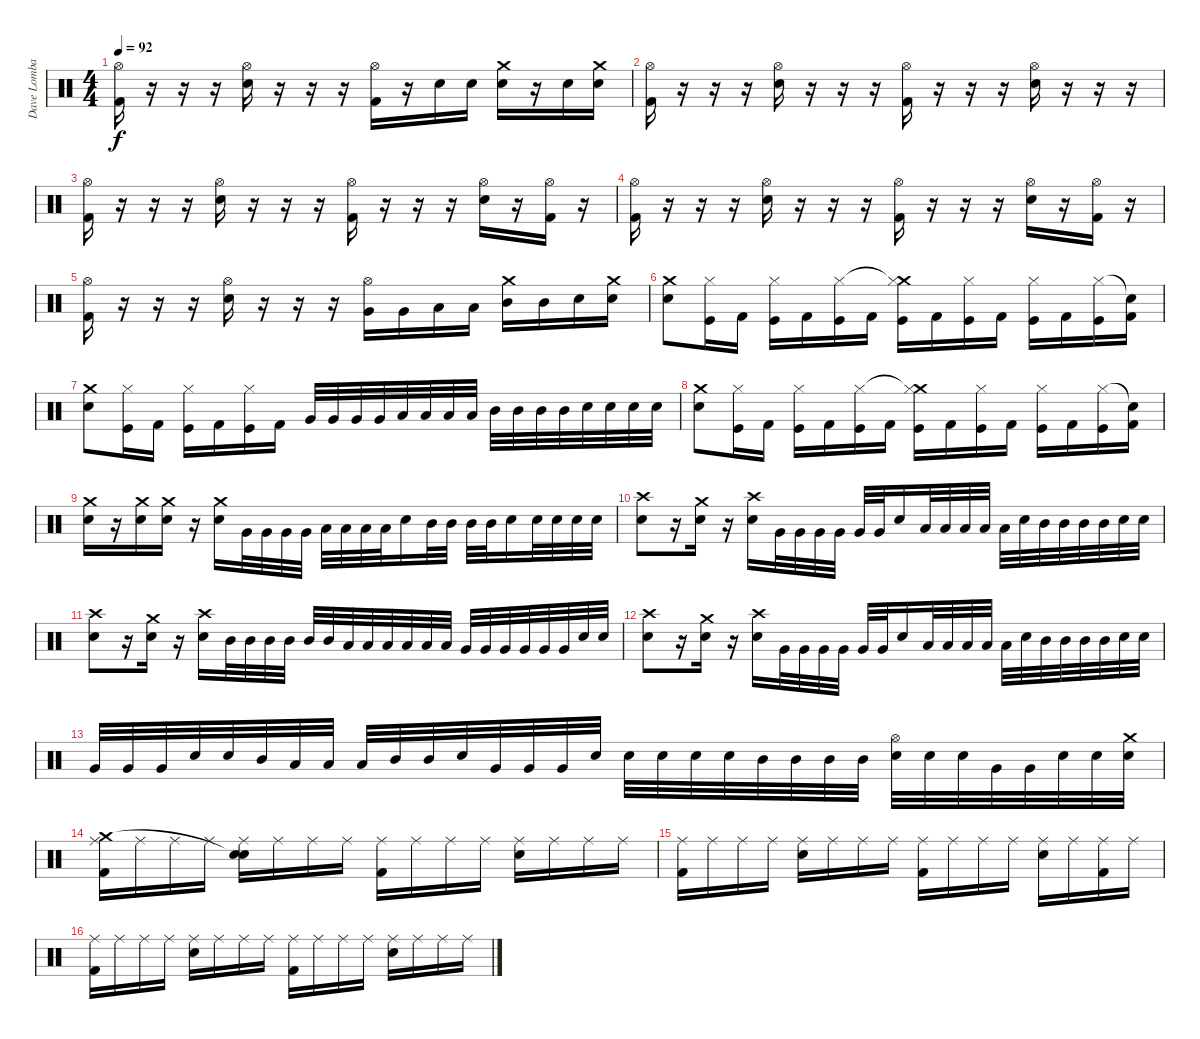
\track ("Dave Lombardo" "Dave Lomba") {instrument percussion}
\staff {score}
\articulation defaults
\ts (4 4)
\tempo 92
\clef neutral
\ks c
("Kick (hit) 2" "Hi-Hat (open)").16{dy f} r.16 r.16 r.16 ("Electric Snare (hit)" "Hi-Hat (open)").16 r.16 r.16 r.16 ("Kick (hit) 2" "Hi-Hat (open)").16 r.16 "Snare (hit) 2".16 "Snare (hit) 2".16 ("Electric Snare (hit)" "Crash medium (hit)").16 r.16 "Electric Snare (hit)".16 ("Electric Snare (hit)" "Crash medium (hit)").16 |
("Kick (hit) 2" "Hi-Hat (open)").16 r.16 r.16 r.16 ("Electric Snare (hit)" "Hi-Hat (open)").16 r.16 r.16 r.16 ("Kick (hit) 2" "Hi-Hat (open)").16 r.16 r.16 r.16 ("Electric Snare (hit)" "Hi-Hat (open)").16 r.16 r.16 r.16 |
("Kick (hit) 2" "Hi-Hat (open)").16 r.16 r.16 r.16 ("Electric Snare (hit)" "Hi-Hat (open)").16 r.16 r.16 r.16 ("Kick (hit) 2" "Hi-Hat (open)").16 r.16 r.16 r.16 ("Electric Snare (hit)" "Hi-Hat (open)").16 r.16 ("Kick (hit) 2" "Hi-Hat (open)").16 r.16 |
("Kick (hit) 2" "Hi-Hat (open)").16 r.16 r.16 r.16 ("Electric Snare (hit)" "Hi-Hat (open)").16 r.16 r.16 r.16 ("Kick (hit) 2" "Hi-Hat (open)").16 r.16 r.16 r.16 ("Electric Snare (hit)" "Hi-Hat (open)").16 r.16 ("Kick (hit) 2" "Hi-Hat (open)").16 r.16 |
("Kick (hit) 2" "Hi-Hat (open)").16 r.16 r.16 r.16 ("Electric Snare (hit)" "Hi-Hat (open)").16 r.16 r.16 r.16 ("Very Low Tom (hit)" "Hi-Hat (open)").16 "Very Low Tom (hit)".16 "Low Tom (hit)".16 "Low Tom (hit)".16 ("Mid Tom (hit)" "Crash medium (hit)").16 "Mid Tom (hit)".16 "Electric Snare (hit)".16 ("Electric Snare (hit)" "Crash medium (hit)").16 |
("Electric Snare (hit)" "Crash medium (hit)").8 ("Kick (hit)" "Hi-Hat (closed)").16 "Kick (hit) 2".16 ("Kick (hit)" "Hi-Hat (closed)").16 "Kick (hit) 2".16 ("Kick (hit)" "Hi-Hat (closed)").16 "Kick (hit) 2".16 ("Kick (hit)" "Crash medium (hit)"{t} "Hi-Hat (closed)").16 "Kick (hit) 2".16 ("Kick (hit)" "Hi-Hat (closed)").16 "Kick (hit) 2".16 ("Kick (hit)" "Hi-Hat (closed)").16 "Kick (hit) 2".16 ("Kick (hit)" "Hi-Hat (closed)").16 ("Kick (hit) 2" "Snare (hit)"{t}).16 |
("Electric Snare (hit)" "Crash medium (hit)").8 ("Kick (hit)" "Hi-Hat (closed)").16 "Kick (hit) 2".16 ("Kick (hit)" "Hi-Hat (closed)").16 "Kick (hit) 2".16 ("Kick (hit)" "Hi-Hat (closed)").16 "Kick (hit) 2".16 "Very Low Tom (hit)".32 "Very Low Tom (hit)".32 "Very Low Tom (hit)".32 "Very Low Tom (hit)".32 "Low Tom (hit)".32 "Low Tom (hit)".32 "Low Tom (hit)".32 "Low Tom (hit)".32 "Mid Tom (hit)".32 "Mid Tom (hit)".32 "Mid Tom (hit)".32 "Mid Tom (hit)".32 "Snare (hit) 2".32 "Snare (hit) 2".32 "Snare (hit) 2".32 "Snare (hit) 2".32 |
("Electric Snare (hit)" "Crash medium (hit)").8 ("Kick (hit)" "Hi-Hat (closed)").16 "Kick (hit) 2".16 ("Kick (hit)" "Hi-Hat (closed)").16 "Kick (hit) 2".16 ("Kick (hit)" "Hi-Hat (closed)").16 "Kick (hit) 2".16 ("Kick (hit)" "Crash medium (hit)"{t} "Hi-Hat (closed)").16 "Kick (hit) 2".16 ("Kick (hit)" "Hi-Hat (closed)").16 "Kick (hit) 2".16 ("Kick (hit)" "Hi-Hat (closed)").16 "Kick (hit) 2".16 ("Kick (hit)" "Hi-Hat (closed)").16 ("Kick (hit) 2" "Snare (hit)"{t}).16 |
("Electric Snare (hit)" "Crash medium (hit)").16 r.16 ("Electric Snare (hit)" "Crash medium (hit)").16 ("Electric Snare (hit)" "Crash medium (hit)").16 r.16 ("Electric Snare (hit)" "Crash medium (hit)").16 "Very Low Tom (hit)".32 "Very Low Tom (hit)".32 "Very Low Tom (hit)".32 "Very Low Tom (hit)".32 "Low Tom (hit)".32 "Low Tom (hit)".32 "Low Tom (hit)".32 "Low Tom (hit)".32 "Electric Snare (hit)".16 "Mid Tom (hit)".32 "Mid Tom (hit)".32 "Mid Tom (hit)".32 "Mid Tom (hit)".32 "Electric Snare (hit)".16 "Snare (hit) 2".32 "Snare (hit) 2".32 "Snare (hit) 2".32 "Snare (hit) 2".32 |
("Electric Snare (hit)" "Crash high (hit)").8 r.16 ("Electric Snare (hit)" "Crash medium (hit)").16 r.16 ("Electric Snare (hit)" "Crash high (hit)").16 "Very Low Tom (hit)".32 "Very Low Tom (hit)".32 "Very Low Tom (hit)".32 "Very Low Tom (hit)".32 "Very Low Tom (hit)".32 "Very Low Tom (hit)".32 "Snare (hit) 2".16 "Low Tom (hit)".32 "Low Tom (hit)".32 "Low Tom (hit)".32 "Low Tom (hit)".32 "Low Tom (hit)".32 "Snare (hit) 2".32 "Mid Tom (hit)".32 "Mid Tom (hit)".32 "Mid Tom (hit)".32 "Mid Tom (hit)".32 "Snare (hit) 2".32 "Snare (hit) 2".32 |
("Electric Snare (hit)" "Crash high (hit)").8 r.16 ("Electric Snare (hit)" "Crash medium (hit)").16 r.16 ("Electric Snare (hit)" "Crash high (hit)").16 "Mid Tom (hit)".32 "Mid Tom (hit)".32 "Mid Tom (hit)".32 "Mid Tom (hit)".32 "Mid Tom (hit)".32 "Mid Tom (hit)".32 "Low Tom (hit)".32 "Low Tom (hit)".32 "Low Tom (hit)".32 "Low Tom (hit)".32 "Low Tom (hit)".32 "Low Tom (hit)".32 "Very Low Tom (hit)".32 "Very Low Tom (hit)".32 "Very Low Tom (hit)".32 "Very Low Tom (hit)".32 "Very Low Tom (hit)".32 "Very Low Tom (hit)".32 "Snare (hit) 2".32 "Snare (hit) 2".32 |
("Electric Snare (hit)" "Crash high (hit)").8 r.16 ("Electric Snare (hit)" "Crash medium (hit)").16 r.16 ("Electric Snare (hit)" "Crash high (hit)").16 "Very Low Tom (hit)".32 "Very Low Tom (hit)".32 "Very Low Tom (hit)".32 "Very Low Tom (hit)".32 "Very Low Tom (hit)".32 "Very Low Tom (hit)".32 "Snare (hit) 2".16 "Low Tom (hit)".32 "Low Tom (hit)".32 "Low Tom (hit)".32 "Low Tom (hit)".32 "Low Tom (hit)".32 "Snare (hit) 2".32 "Mid Tom (hit)".32 "Mid Tom (hit)".32 "Mid Tom (hit)".32 "Mid Tom (hit)".32 "Snare (hit) 2".32 "Snare (hit) 2".32 |
"Very Low Tom (hit)".32 "Very Low Tom (hit)".32 "Very Low Tom (hit)".32 "Snare (hit) 2".32 "Electric Snare (hit)".32 "Mid Tom (hit)".32 "Low Tom (hit)".32 "Low Tom (hit)".32 "Low Tom (hit)".32 "Mid Tom (hit)".32 "Mid Tom (hit)".32 "Electric Snare (hit)".32 "Very Low Tom (hit)".32 "Very Low Tom (hit)".32 "Very Low Tom (hit)".32 "Snare (hit) 2".32 "Snare (hit) 2".32 "Snare (hit) 2".32 "Snare (hit) 2".32 "Snare (hit) 2".32 "Mid Tom (hit)".32 "Mid Tom (hit)".32 "Mid Tom (hit)".32 "Mid Tom (hit)".32 ("Snare (hit) 2" "Hi-Hat (open)").32 "Snare (hit) 2".32 "Snare (hit) 2".32 "Very Low Tom (hit)".32 "Very Low Tom (hit)".32 "Electric Snare (hit)".32 "Electric Snare (hit)".32 ("Electric Snare (hit)" "Crash medium (hit)").32 |
("Kick (hit) 2" "Crash medium (hit)" "Ride (middle)").16 "Ride (middle)".16 "Ride (middle)".16 "Ride (middle)".16 ("Electric Snare (hit)" "Snare (hit)"{t} "Ride (middle)").16 "Ride (middle)".16 "Ride (middle)".16 "Ride (middle)".16 ("Kick (hit) 2" "Ride (middle)").16 "Ride (middle)".16 "Ride (middle)".16 "Ride (middle)".16 ("Electric Snare (hit)" "Ride (middle)").16 "Ride (middle)".16 "Ride (middle)".16 "Ride (middle)".16 |
("Kick (hit) 2" "Ride (middle)").16 "Ride (middle)".16 "Ride (middle)".16 "Ride (middle)".16 ("Electric Snare (hit)" "Ride (middle)").16 "Ride (middle)".16 "Ride (middle)".16 "Ride (middle)".16 ("Kick (hit) 2" "Ride (middle)").16 "Ride (middle)".16 "Ride (middle)".16 "Ride (middle)".16 ("Electric Snare (hit)" "Ride (middle)").16 "Ride (middle)".16 ("Kick (hit) 2" "Ride (middle)").16 "Ride (middle)".16 |
("Kick (hit) 2" "Ride (middle)").16 "Ride (middle)".16 "Ride (middle)".16 "Ride (middle)".16 ("Electric Snare (hit)" "Ride (middle)").16 "Ride (middle)".16 "Ride (middle)".16 "Ride (middle)".16 ("Kick (hit) 2" "Ride (middle)").16 "Ride (middle)".16 "Ride (middle)".16 "Ride (middle)".16 ("Electric Snare (hit)" "Ride (middle)").16 "Ride (middle)".16 "Ride (middle)".16 "Ride (middle)".16
